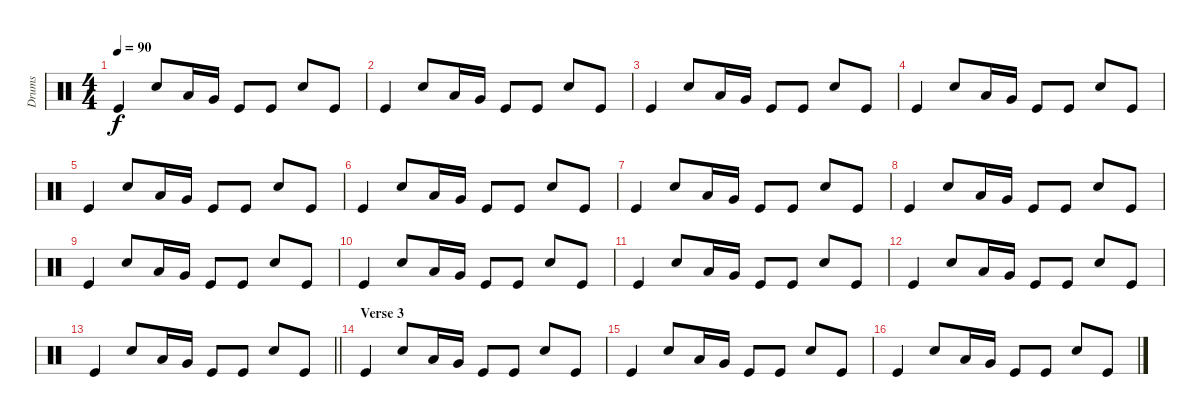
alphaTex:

\track ("Drums" "Drums") {instrument percussion}
\staff {score}
\articulation defaults
\ts (4 4)
\tempo 90
\clef neutral
\ks aminor "Kick (hit)".4{dy f} "Hand Clap (hit)".8 "Low Tom (hit)".16 "Very Low Tom (hit)".16 "Kick (hit)".8 "Kick (hit)".8 "Hand Clap (hit)".8 "Kick (hit)".8
|
"Kick (hit)".4 "Hand Clap (hit)".8 "Low Tom (hit)".16 "Very Low Tom (hit)".16 "Kick (hit)".8 "Kick (hit)".8 "Hand Clap (hit)".8 "Kick (hit)".8 |
"Kick (hit)".4 "Hand Clap (hit)".8 "Low Tom (hit)".16 "Very Low Tom (hit)".16 "Kick (hit)".8 "Kick (hit)".8 "Hand Clap (hit)".8 "Kick (hit)".8 |
"Kick (hit)".4 "Hand Clap (hit)".8 "Low Tom (hit)".16 "Very Low Tom (hit)".16 "Kick (hit)".8 "Kick (hit)".8 "Hand Clap (hit)".8 "Kick (hit)".8 |
"Kick (hit)".4 "Hand Clap (hit)".8 "Low Tom (hit)".16 "Very Low Tom (hit)".16 "Kick (hit)".8 "Kick (hit)".8 "Hand Clap (hit)".8 "Kick (hit)".8 |
"Kick (hit)".4 "Hand Clap (hit)".8 "Low Tom (hit)".16 "Very Low Tom (hit)".16 "Kick (hit)".8 "Kick (hit)".8 "Hand Clap (hit)".8 "Kick (hit)".8 |
"Kick (hit)".4 "Hand Clap (hit)".8 "Low Tom (hit)".16 "Very Low Tom (hit)".16 "Kick (hit)".8 "Kick (hit)".8 "Hand Clap (hit)".8 "Kick (hit)".8 |
"Kick (hit)".4 "Hand Clap (hit)".8 "Low Tom (hit)".16 "Very Low Tom (hit)".16 "Kick (hit)".8 "Kick (hit)".8 "Hand Clap (hit)".8 "Kick (hit)".8 |
"Kick (hit)".4 "Hand Clap (hit)".8 "Low Tom (hit)".16 "Very Low Tom (hit)".16 "Kick (hit)".8 "Kick (hit)".8 "Hand Clap (hit)".8 "Kick (hit)".8 |
"Kick (hit)".4 "Hand Clap (hit)".8 "Low Tom (hit)".16 "Very Low Tom (hit)".16 "Kick (hit)".8 "Kick (hit)".8 "Hand Clap (hit)".8 "Kick (hit)".8 |
"Kick (hit)".4 "Hand Clap (hit)".8 "Low Tom (hit)".16 "Very Low Tom (hit)".16 "Kick (hit)".8 "Kick (hit)".8 "Hand Clap (hit)".8 "Kick (hit)".8 |
"Kick (hit)".4 "Hand Clap (hit)".8 "Low Tom (hit)".16 "Very Low Tom (hit)".16 "Kick (hit)".8 "Kick (hit)".8 "Hand Clap (hit)".8 "Kick (hit)".8 |
\barLineRight lightlight "Kick (hit)".4 "Hand Clap (hit)".8 "Low Tom (hit)".16 "Very Low Tom (hit)".16 "Kick (hit)".8 "Kick (hit)".8 "Hand Clap (hit)".8 "Kick (hit)".8
|
\section ("" "Verse 3")
"Kick (hit)".4 "Hand Clap (hit)".8 "Low Tom (hit)".16 "Very Low Tom (hit)".16 "Kick (hit)".8 "Kick (hit)".8 "Hand Clap (hit)".8 "Kick (hit)".8 |
"Kick (hit)".4 "Hand Clap (hit)".8 "Low Tom (hit)".16 "Very Low Tom (hit)".16 "Kick (hit)".8 "Kick (hit)".8 "Hand Clap (hit)".8 "Kick (hit)".8 |
"Kick (hit)".4 "Hand Clap (hit)".8 "Low Tom (hit)".16 "Very Low Tom (hit)".16 "Kick (hit)".8 "Kick (hit)".8 "Hand Clap (hit)".8 "Kick (hit)".8
